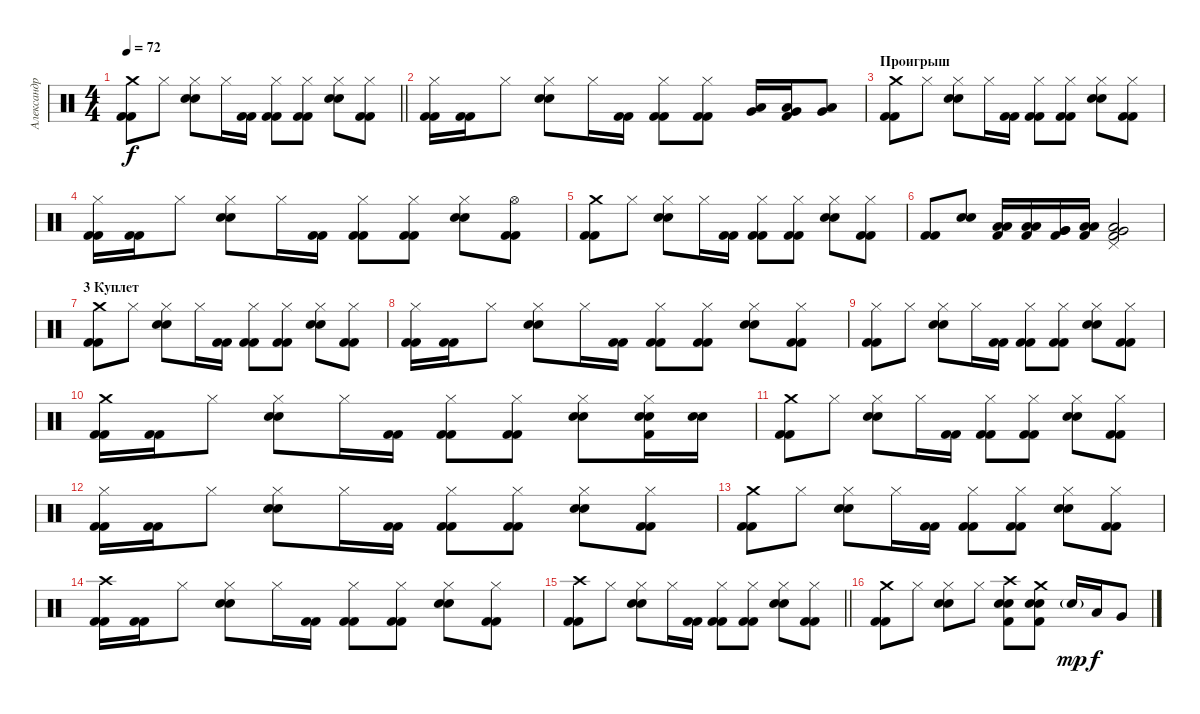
\track ("Александр Манякин (Drums)" "Александр ") {instrument percussion}
\staff {score}
\articulation defaults
\ts (4 4)
\tempo 72
\clef neutral
\barLineRight lightlight
\ks c
("Crash medium (hit)" "Kick (hit) 2" "Kick (hit) 2").8{dy f} "Hi-Hat (closed)".8 ("Hi-Hat (closed)" "Electric Snare (hit)" "Electric Snare (hit)").8 "Hi-Hat (closed)".16 ("Kick (hit) 2" "Kick (hit) 2").16 ("Hi-Hat (closed)" "Kick (hit) 2" "Kick (hit) 2").8 ("Hi-Hat (closed)" "Kick (hit) 2" "Kick (hit) 2").8 ("Hi-Hat (closed)" "Electric Snare (hit)" "Electric Snare (hit)").8 ("Hi-Hat (closed)" "Kick (hit) 2" "Kick (hit) 2").8 |
("Hi-Hat (closed)" "Kick (hit) 2" "Kick (hit) 2").16 ("Kick (hit) 2" "Kick (hit) 2").16 "Hi-Hat (closed)".8 ("Hi-Hat (closed)" "Electric Snare (hit)" "Electric Snare (hit)").8 "Hi-Hat (closed)".16 ("Kick (hit) 2" "Kick (hit) 2").16 ("Hi-Hat (closed)" "Kick (hit) 2" "Kick (hit) 2").8 ("Hi-Hat (closed)" "Kick (hit) 2" "Kick (hit) 2").8 ("Low Tom (hit)" "Very Low Tom (hit)").16 ("Low Tom (hit)" "Very Low Tom (hit)" "Kick (hit) 2").16 ("Low Tom (hit)" "Very Low Tom (hit)").8 |
\section ("" "Проигрыш")
("Crash medium (hit)" "Kick (hit) 2" "Kick (hit) 2").8 "Hi-Hat (closed)".8 ("Hi-Hat (closed)" "Electric Snare (hit)" "Electric Snare (hit)").8 "Hi-Hat (closed)".16 ("Kick (hit) 2" "Kick (hit) 2").16 ("Hi-Hat (closed)" "Kick (hit) 2" "Kick (hit) 2").8 ("Hi-Hat (closed)" "Kick (hit) 2" "Kick (hit) 2").8 ("Hi-Hat (closed)" "Electric Snare (hit)" "Electric Snare (hit)").8 ("Hi-Hat (closed)" "Kick (hit) 2" "Kick (hit) 2").8 |
("Hi-Hat (closed)" "Kick (hit) 2" "Kick (hit) 2").16 ("Kick (hit) 2" "Kick (hit) 2").16 "Hi-Hat (closed)".8 ("Hi-Hat (closed)" "Electric Snare (hit)" "Electric Snare (hit)").8 "Hi-Hat (closed)".16 ("Kick (hit) 2" "Kick (hit) 2").16 ("Hi-Hat (closed)" "Kick (hit) 2" "Kick (hit) 2").8 ("Hi-Hat (closed)" "Kick (hit) 2" "Kick (hit) 2").8 ("Hi-Hat (closed)" "Electric Snare (hit)" "Electric Snare (hit)").8 ("Hi-Hat (open)" "Kick (hit) 2" "Kick (hit) 2").8 |
("Crash medium (hit)" "Kick (hit) 2" "Kick (hit) 2").8 "Hi-Hat (closed)".8 ("Hi-Hat (closed)" "Electric Snare (hit)" "Electric Snare (hit)").8 "Hi-Hat (closed)".16 ("Kick (hit) 2" "Kick (hit) 2").16 ("Hi-Hat (closed)" "Kick (hit) 2" "Kick (hit) 2").8 ("Hi-Hat (closed)" "Kick (hit) 2" "Kick (hit) 2").8 ("Hi-Hat (closed)" "Electric Snare (hit)" "Electric Snare (hit)").8 ("Hi-Hat (closed)" "Kick (hit) 2" "Kick (hit) 2").8 |
("Kick (hit) 2" "Kick (hit) 2").8 ("Electric Snare (hit)" "Electric Snare (hit)").8 ("Low Tom (hit)" "Low Tom (hit)" "Kick (hit) 2").16 ("Low Tom (hit)" "Low Tom (hit)" "Kick (hit) 2").16 ("Very Low Tom (hit)" "Very Low Tom (hit)" "Kick (hit) 2").16 ("Low Floor Tom (hit)" "Low Floor Tom (hit)" "Kick (hit) 2").16 ("Pedal Hi-Hat (hit)" "Very Low Tom (hit)" "Low Floor Tom (hit)" "Kick (hit) 2").2 |
\section ("" "3 Куплет")
("Crash medium (hit)" "Kick (hit) 2" "Kick (hit) 2").8 "Hi-Hat (closed)".8 ("Hi-Hat (closed)" "Electric Snare (hit)" "Electric Snare (hit)").8 "Hi-Hat (closed)".16 ("Kick (hit) 2" "Kick (hit) 2").16 ("Hi-Hat (closed)" "Kick (hit) 2" "Kick (hit) 2").8 ("Hi-Hat (closed)" "Kick (hit) 2" "Kick (hit) 2").8 ("Hi-Hat (closed)" "Electric Snare (hit)" "Electric Snare (hit)").8 ("Hi-Hat (closed)" "Kick (hit) 2" "Kick (hit) 2").8 |
("Hi-Hat (closed)" "Kick (hit) 2" "Kick (hit) 2").16 ("Kick (hit) 2" "Kick (hit) 2").16 "Hi-Hat (closed)".8 ("Hi-Hat (closed)" "Electric Snare (hit)" "Electric Snare (hit)").8 "Hi-Hat (closed)".16 ("Kick (hit) 2" "Kick (hit) 2").16 ("Hi-Hat (closed)" "Kick (hit) 2" "Kick (hit) 2").8 ("Hi-Hat (closed)" "Kick (hit) 2" "Kick (hit) 2").8 ("Hi-Hat (closed)" "Electric Snare (hit)" "Electric Snare (hit)").8 ("Hi-Hat (closed)" "Kick (hit) 2" "Kick (hit) 2").8 |
("Hi-Hat (closed)" "Kick (hit) 2" "Kick (hit) 2").8 "Hi-Hat (closed)".8 ("Hi-Hat (closed)" "Electric Snare (hit)" "Electric Snare (hit)").8 "Hi-Hat (closed)".16 ("Kick (hit) 2" "Kick (hit) 2").16 ("Hi-Hat (closed)" "Kick (hit) 2" "Kick (hit) 2").8 ("Hi-Hat (closed)" "Kick (hit) 2" "Kick (hit) 2").8 ("Hi-Hat (closed)" "Electric Snare (hit)" "Electric Snare (hit)").8 ("Hi-Hat (closed)" "Kick (hit) 2" "Kick (hit) 2").8 |
("Crash medium (hit)" "Kick (hit) 2" "Kick (hit) 2").16 ("Kick (hit) 2" "Kick (hit) 2").16 "Hi-Hat (closed)".8 ("Hi-Hat (closed)" "Electric Snare (hit)" "Electric Snare (hit)").8 "Hi-Hat (closed)".16 ("Kick (hit) 2" "Kick (hit) 2").16 ("Hi-Hat (closed)" "Kick (hit) 2" "Kick (hit) 2").8 ("Hi-Hat (closed)" "Kick (hit) 2" "Kick (hit) 2").8 ("Hi-Hat (closed)" "Electric Snare (hit)" "Electric Snare (hit)").8 ("Hi-Hat (closed)" "Electric Snare (hit)" "Electric Snare (hit)" "Kick (hit) 2").16 ("Electric Snare (hit)" "Electric Snare (hit)").16 |
("Crash medium (hit)" "Kick (hit) 2" "Kick (hit) 2").8 "Hi-Hat (closed)".8 ("Hi-Hat (closed)" "Electric Snare (hit)" "Electric Snare (hit)").8 "Hi-Hat (closed)".16 ("Kick (hit) 2" "Kick (hit) 2").16 ("Hi-Hat (closed)" "Kick (hit) 2" "Kick (hit) 2").8 ("Hi-Hat (closed)" "Kick (hit) 2" "Kick (hit) 2").8 ("Hi-Hat (closed)" "Electric Snare (hit)" "Electric Snare (hit)").8 ("Hi-Hat (closed)" "Kick (hit) 2" "Kick (hit) 2").8 |
("Hi-Hat (closed)" "Kick (hit) 2" "Kick (hit) 2").16 ("Kick (hit) 2" "Kick (hit) 2").16 "Hi-Hat (closed)".8 ("Hi-Hat (closed)" "Electric Snare (hit)" "Electric Snare (hit)").8 "Hi-Hat (closed)".16 ("Kick (hit) 2" "Kick (hit) 2").16 ("Hi-Hat (closed)" "Kick (hit) 2" "Kick (hit) 2").8 ("Hi-Hat (closed)" "Kick (hit) 2" "Kick (hit) 2").8 ("Hi-Hat (closed)" "Electric Snare (hit)" "Electric Snare (hit)").8 ("Hi-Hat (closed)" "Kick (hit) 2" "Kick (hit) 2").8 |
("Crash medium (hit)" "Kick (hit) 2" "Kick (hit) 2").8 "Hi-Hat (closed)".8 ("Hi-Hat (closed)" "Electric Snare (hit)" "Electric Snare (hit)").8 "Hi-Hat (closed)".16 ("Kick (hit) 2" "Kick (hit) 2").16 ("Hi-Hat (closed)" "Kick (hit) 2" "Kick (hit) 2").8 ("Hi-Hat (closed)" "Kick (hit) 2" "Kick (hit) 2").8 ("Hi-Hat (closed)" "Electric Snare (hit)" "Electric Snare (hit)").8 ("Hi-Hat (closed)" "Kick (hit) 2" "Kick (hit) 2").8 |
("Crash high (hit)" "Kick (hit) 2" "Kick (hit) 2").16 ("Kick (hit) 2" "Kick (hit) 2").16 "Hi-Hat (closed)".8 ("Hi-Hat (closed)" "Electric Snare (hit)" "Electric Snare (hit)").8 "Hi-Hat (closed)".16 ("Kick (hit) 2" "Kick (hit) 2").16 ("Hi-Hat (closed)" "Kick (hit) 2" "Kick (hit) 2").8 ("Hi-Hat (closed)" "Kick (hit) 2" "Kick (hit) 2").8 ("Hi-Hat (closed)" "Electric Snare (hit)" "Electric Snare (hit)").8 ("Hi-Hat (closed)" "Kick (hit) 2" "Kick (hit) 2").8 |
\barLineRight lightlight
("Crash high (hit)" "Kick (hit) 2" "Kick (hit) 2").8 "Hi-Hat (closed)".8 ("Hi-Hat (closed)" "Electric Snare (hit)" "Electric Snare (hit)").8 "Hi-Hat (closed)".16 ("Kick (hit) 2" "Kick (hit) 2").16 ("Hi-Hat (closed)" "Kick (hit) 2" "Kick (hit) 2").8 ("Hi-Hat (closed)" "Kick (hit) 2" "Kick (hit) 2").8 ("Hi-Hat (closed)" "Electric Snare (hit)" "Electric Snare (hit)").8 ("Hi-Hat (closed)" "Kick (hit) 2" "Kick (hit) 2").8 |
("Crash medium (hit)" "Kick (hit) 2" "Kick (hit) 2").8 "Hi-Hat (closed)".8 ("Hi-Hat (closed)" "Electric Snare (hit)" "Electric Snare (hit)").8 "Hi-Hat (closed)".8 ("Crash high (hit)" "Electric Snare (hit)" "Electric Snare (hit)" "Kick (hit) 2").8 ("Crash medium (hit)" "Electric Snare (hit)" "Electric Snare (hit)" "Kick (hit) 2").8 "Electric Snare (hit)"{g}.16{dy mp} "Low Tom (hit)".16{dy f} "Very Low Tom (hit)".8
